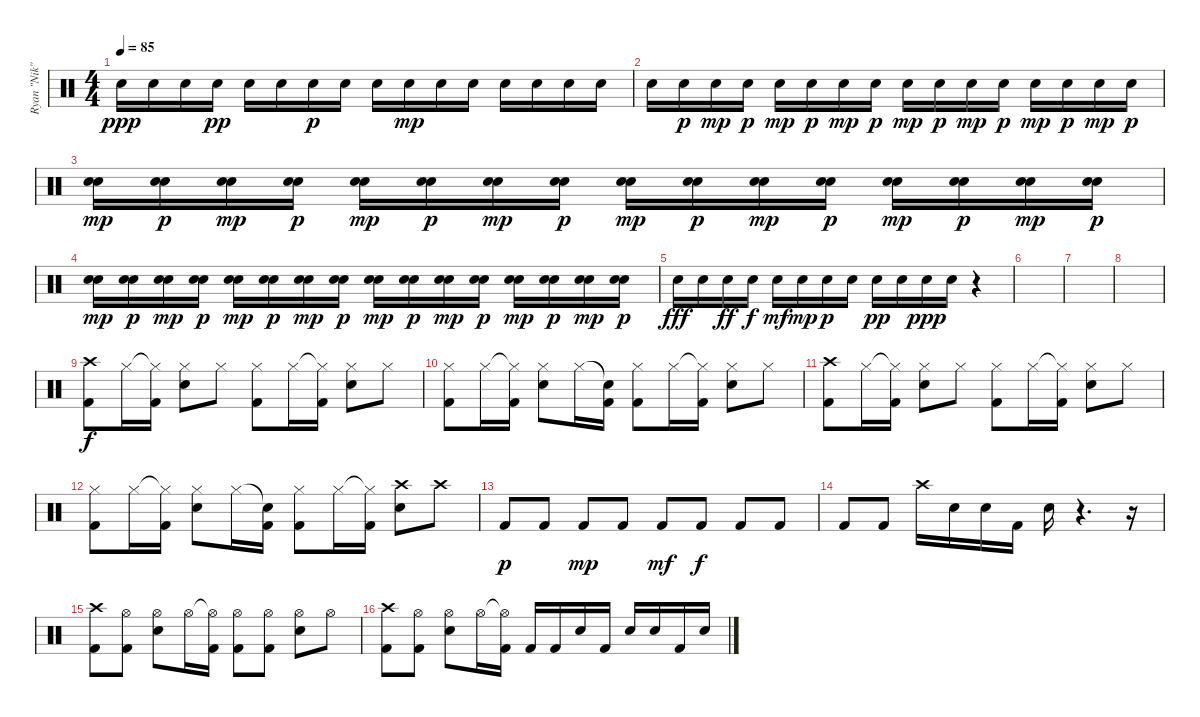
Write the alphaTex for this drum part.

\track ("Ryan \"Nik\" Vikedal (Drums)" "Ryan \"Nik\"") {instrument percussion}
\staff {score}
\articulation defaults
\ts (4 4)
\tempo 85
\clef neutral
\ks c "Electric Snare (hit)".16{dy ppp} "Electric Snare (hit)".16 "Electric Snare (hit)".16 "Electric Snare (hit)".16{dy pp} "Electric Snare (hit)".16 "Electric Snare (hit)".16 "Electric Snare (hit)".16{dy p} "Electric Snare (hit)".16 "Electric Snare (hit)".16 "Electric Snare (hit)".16{dy mp} "Electric Snare (hit)".16 "Electric Snare (hit)".16 "Electric Snare (hit)".16 "Electric Snare (hit)".16 "Electric Snare (hit)".16 "Electric Snare (hit)".16
|
"Electric Snare (hit)".16 "Electric Snare (hit)".16{dy p} "Electric Snare (hit)".16{dy mp} "Electric Snare (hit)".16{dy p} "Electric Snare (hit)".16{dy mp} "Electric Snare (hit)".16{dy p} "Electric Snare (hit)".16{dy mp} "Electric Snare (hit)".16{dy p} "Electric Snare (hit)".16{dy mp} "Electric Snare (hit)".16{dy p} "Electric Snare (hit)".16{dy mp} "Electric Snare (hit)".16{dy p} "Electric Snare (hit)".16{dy mp} "Electric Snare (hit)".16{dy p} "Electric Snare (hit)".16{dy mp} "Electric Snare (hit)".16{dy p} |
("Electric Snare (hit)" "Electric Snare (hit)").16{dy mp} ("Electric Snare (hit)" "Electric Snare (hit)").16{dy p} ("Electric Snare (hit)" "Electric Snare (hit)").16{dy mp} ("Electric Snare (hit)" "Electric Snare (hit)").16{dy p} ("Electric Snare (hit)" "Electric Snare (hit)").16{dy mp} ("Electric Snare (hit)" "Electric Snare (hit)").16{dy p} ("Electric Snare (hit)" "Electric Snare (hit)").16{dy mp} ("Electric Snare (hit)" "Electric Snare (hit)").16{dy p} ("Electric Snare (hit)" "Electric Snare (hit)").16{dy mp} ("Electric Snare (hit)" "Electric Snare (hit)").16{dy p} ("Electric Snare (hit)" "Electric Snare (hit)").16{dy mp} ("Electric Snare (hit)" "Electric Snare (hit)").16{dy p} ("Electric Snare (hit)" "Electric Snare (hit)").16{dy mp} ("Electric Snare (hit)" "Electric Snare (hit)").16{dy p} ("Electric Snare (hit)" "Electric Snare (hit)").16{dy mp} ("Electric Snare (hit)" "Electric Snare (hit)").16{dy p} |
("Electric Snare (hit)" "Electric Snare (hit)").16{dy mp} ("Electric Snare (hit)" "Electric Snare (hit)").16{dy p} ("Electric Snare (hit)" "Electric Snare (hit)").16{dy mp} ("Electric Snare (hit)" "Electric Snare (hit)").16{dy p} ("Electric Snare (hit)" "Electric Snare (hit)").16{dy mp} ("Electric Snare (hit)" "Electric Snare (hit)").16{dy p} ("Electric Snare (hit)" "Electric Snare (hit)").16{dy mp} ("Electric Snare (hit)" "Electric Snare (hit)").16{dy p} ("Electric Snare (hit)" "Electric Snare (hit)").16{dy mp} ("Electric Snare (hit)" "Electric Snare (hit)").16{dy p} ("Electric Snare (hit)" "Electric Snare (hit)").16{dy mp} ("Electric Snare (hit)" "Electric Snare (hit)").16{dy p} ("Electric Snare (hit)" "Electric Snare (hit)").16{dy mp} ("Electric Snare (hit)" "Electric Snare (hit)").16{dy p} ("Electric Snare (hit)" "Electric Snare (hit)").16{dy mp} ("Electric Snare (hit)" "Electric Snare (hit)").16{dy p} |
"Electric Snare (hit)".16{dy fff} "Electric Snare (hit)".16 "Electric Snare (hit)".16{dy ff} "Electric Snare (hit)".16{dy f} "Electric Snare (hit)".16{dy mf} "Electric Snare (hit)".16{dy mp} "Electric Snare (hit)".16{dy p} "Electric Snare (hit)".16 "Electric Snare (hit)".16{dy pp} "Electric Snare (hit)".16 "Electric Snare (hit)".16{dy ppp} "Electric Snare (hit)".16 r.4 |
|
|
|
("Crash high (hit)" "Kick (hit) 2").8{dy f} "Hi-Hat (closed)".16 ("Hi-Hat (closed)"{t} "Kick (hit) 2").16 ("Hi-Hat (closed)" "Electric Snare (hit)").8 "Hi-Hat (closed)".8 ("Hi-Hat (closed)" "Kick (hit) 2").8 "Hi-Hat (closed)".16 ("Hi-Hat (closed)"{t} "Kick (hit) 2").16 ("Hi-Hat (closed)" "Electric Snare (hit)").8 "Hi-Hat (closed)".8 |
("Hi-Hat (closed)" "Kick (hit) 2").8 "Hi-Hat (closed)".16 ("Hi-Hat (closed)"{t} "Kick (hit) 2").16 ("Hi-Hat (closed)" "Electric Snare (hit)").8 "Hi-Hat (closed)".16 ("Snare (hit)"{t} "Kick (hit) 2").16 ("Hi-Hat (closed)" "Kick (hit) 2").8 "Hi-Hat (closed)".16 ("Hi-Hat (closed)"{t} "Kick (hit) 2").16 ("Hi-Hat (closed)" "Electric Snare (hit)").8 "Hi-Hat (closed)".8 |
("Crash high (hit)" "Kick (hit) 2").8 "Hi-Hat (closed)".16 ("Hi-Hat (closed)"{t} "Kick (hit) 2").16 ("Hi-Hat (closed)" "Electric Snare (hit)").8 "Hi-Hat (closed)".8 ("Hi-Hat (closed)" "Kick (hit) 2").8 "Hi-Hat (closed)".16 ("Hi-Hat (closed)"{t} "Kick (hit) 2").16 ("Hi-Hat (closed)" "Electric Snare (hit)").8 "Hi-Hat (closed)".8 |
("Hi-Hat (closed)" "Kick (hit) 2").8 "Hi-Hat (closed)".16 ("Hi-Hat (closed)"{t} "Kick (hit) 2").16 ("Hi-Hat (closed)" "Electric Snare (hit)").8 "Hi-Hat (closed)".16 ("Snare (hit)"{t} "Kick (hit) 2").16 ("Hi-Hat (closed)" "Kick (hit) 2").8 "Hi-Hat (closed)".16 ("Hi-Hat (closed)"{t} "Kick (hit) 2").16 ("Crash high (hit)" "Electric Snare (hit)").8 "Crash high (hit)".8 |
"Kick (hit) 2".8{dy p} "Kick (hit) 2".8 "Kick (hit) 2".8{dy mp} "Kick (hit) 2".8 "Kick (hit) 2".8{dy mf} "Kick (hit) 2".8{dy f} "Kick (hit) 2".8 "Kick (hit) 2".8 |
"Kick (hit) 2".8 "Kick (hit) 2".8 "Crash high (hit)".16 "Electric Snare (hit)".16 "Electric Snare (hit)".16 "Kick (hit) 2".16 "Electric Snare (hit)".16 r.4{d} r.16 |
("Crash high (hit)" "Kick (hit) 2").8 ("Hi-Hat (open)" "Kick (hit) 2").8 ("Hi-Hat (open)" "Electric Snare (hit)").8 "Hi-Hat (open)".16 ("Hi-Hat (open)"{t} "Kick (hit) 2").16 ("Hi-Hat (open)" "Kick (hit) 2").8 ("Hi-Hat (open)" "Kick (hit) 2").8 ("Hi-Hat (open)" "Electric Snare (hit)").8 "Hi-Hat (open)".8 |
("Crash high (hit)" "Kick (hit) 2").8 ("Hi-Hat (open)" "Kick (hit) 2").8 ("Hi-Hat (open)" "Electric Snare (hit)").8 "Hi-Hat (open)".16 ("Hi-Hat (open)"{t} "Kick (hit) 2").16 "Kick (hit) 2".16 "Kick (hit) 2".16 "Electric Snare (hit)".16 "Kick (hit) 2".16 "Electric Snare (hit)".16 "Electric Snare (hit)".16 "Kick (hit) 2".16 "Electric Snare (hit)".16
